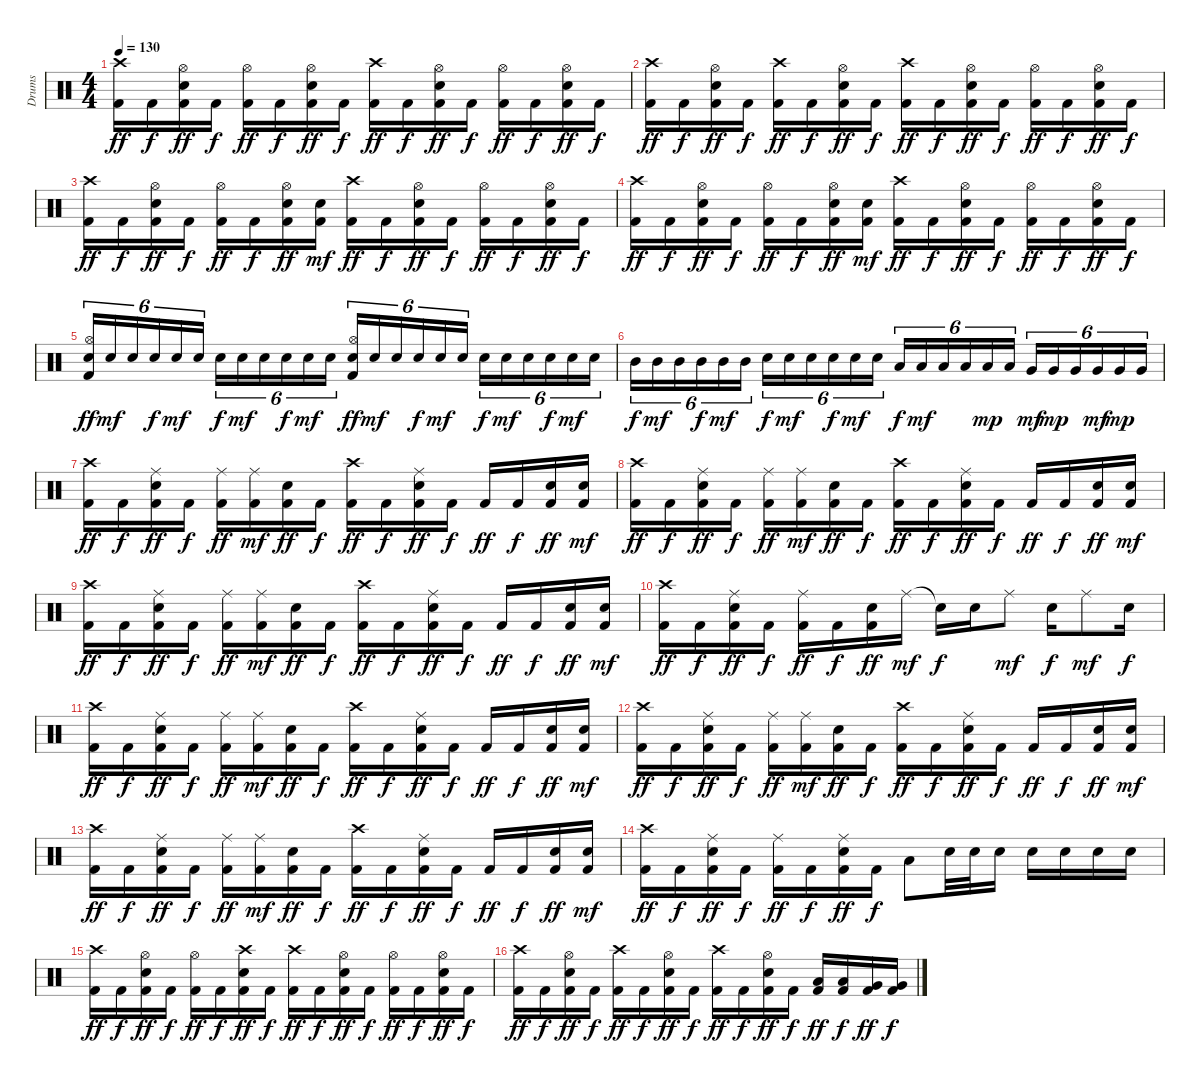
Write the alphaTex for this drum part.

\track ("Drums" "Drums") {instrument percussion}
\staff {score}
\articulation defaults
\ts (4 4)
\tempo 130
\clef neutral
\ks c
("Crash high (hit)" "Kick (hit) 2").16{dy ff} "Kick (hit) 2".16{dy f} ("Hi-Hat (open)" "Electric Snare (hit)" "Kick (hit) 2").16{dy ff} "Kick (hit) 2".16{dy f} ("Hi-Hat (open)" "Kick (hit) 2").16{dy ff} "Kick (hit) 2".16{dy f} ("Hi-Hat (open)" "Electric Snare (hit)" "Kick (hit) 2").16{dy ff} "Kick (hit) 2".16{dy f} ("Crash high (hit)" "Kick (hit) 2").16{dy ff} "Kick (hit) 2".16{dy f} ("Hi-Hat (open)" "Electric Snare (hit)" "Kick (hit) 2").16{dy ff} "Kick (hit) 2".16{dy f} ("Hi-Hat (open)" "Kick (hit) 2").16{dy ff} "Kick (hit) 2".16{dy f} ("Hi-Hat (open)" "Electric Snare (hit)" "Kick (hit) 2").16{dy ff} "Kick (hit) 2".16{dy f} |
("Crash high (hit)" "Kick (hit) 2").16{dy ff} "Kick (hit) 2".16{dy f} ("Hi-Hat (open)" "Electric Snare (hit)" "Kick (hit) 2").16{dy ff} "Kick (hit) 2".16{dy f} ("Crash high (hit)" "Kick (hit) 2").16{dy ff} "Kick (hit) 2".16{dy f} ("Hi-Hat (open)" "Electric Snare (hit)" "Kick (hit) 2").16{dy ff} "Kick (hit) 2".16{dy f} ("Crash high (hit)" "Kick (hit) 2").16{dy ff} "Kick (hit) 2".16{dy f} ("Hi-Hat (open)" "Electric Snare (hit)" "Kick (hit) 2").16{dy ff} "Kick (hit) 2".16{dy f} ("Hi-Hat (open)" "Kick (hit) 2").16{dy ff} "Kick (hit) 2".16{dy f} ("Hi-Hat (open)" "Electric Snare (hit)" "Kick (hit) 2").16{dy ff} "Kick (hit) 2".16{dy f} |
("Crash high (hit)" "Kick (hit) 2").16{dy ff} "Kick (hit) 2".16{dy f} ("Hi-Hat (open)" "Electric Snare (hit)" "Kick (hit) 2").16{dy ff} "Kick (hit) 2".16{dy f} ("Hi-Hat (open)" "Kick (hit) 2").16{dy ff} "Kick (hit) 2".16{dy f} ("Hi-Hat (open)" "Electric Snare (hit)" "Kick (hit) 2").16{dy ff} ("Electric Snare (hit)" "Kick (hit) 2").16{dy mf} ("Crash high (hit)" "Kick (hit) 2").16{dy ff} "Kick (hit) 2".16{dy f} ("Hi-Hat (open)" "Electric Snare (hit)" "Kick (hit) 2").16{dy ff} "Kick (hit) 2".16{dy f} ("Hi-Hat (open)" "Kick (hit) 2").16{dy ff} "Kick (hit) 2".16{dy f} ("Hi-Hat (open)" "Electric Snare (hit)" "Kick (hit) 2").16{dy ff} "Kick (hit) 2".16{dy f} |
("Crash high (hit)" "Kick (hit) 2").16{dy ff} "Kick (hit) 2".16{dy f} ("Hi-Hat (open)" "Electric Snare (hit)" "Kick (hit) 2").16{dy ff} "Kick (hit) 2".16{dy f} ("Hi-Hat (open)" "Kick (hit) 2").16{dy ff} "Kick (hit) 2".16{dy f} ("Hi-Hat (open)" "Electric Snare (hit)" "Kick (hit) 2").16{dy ff} ("Electric Snare (hit)" "Kick (hit) 2").16{dy mf} ("Crash high (hit)" "Kick (hit) 2").16{dy ff} "Kick (hit) 2".16{dy f} ("Hi-Hat (open)" "Electric Snare (hit)" "Kick (hit) 2").16{dy ff} "Kick (hit) 2".16{dy f} ("Hi-Hat (open)" "Kick (hit) 2").16{dy ff} "Kick (hit) 2".16{dy f} ("Hi-Hat (open)" "Electric Snare (hit)" "Kick (hit) 2").16{dy ff} "Kick (hit) 2".16{dy f} |
("Hi-Hat (open)" "Electric Snare (hit)" "Kick (hit) 2").16{tu (6 4) dy ff} "Electric Snare (hit)".16{tu (6 4) dy mf} "Electric Snare (hit)".16{tu (6 4)} "Electric Snare (hit)".16{tu (6 4) dy f} "Electric Snare (hit)".16{tu (6 4) dy mf} "Electric Snare (hit)".16{tu (6 4)} "Electric Snare (hit)".16{tu (6 4) dy f} "Electric Snare (hit)".16{tu (6 4) dy mf} "Electric Snare (hit)".16{tu (6 4)} "Electric Snare (hit)".16{tu (6 4) dy f} "Electric Snare (hit)".16{tu (6 4) dy mf} "Electric Snare (hit)".16{tu (6 4)} ("Hi-Hat (open)" "Electric Snare (hit)" "Kick (hit) 2").16{tu (6 4) dy ff} "Electric Snare (hit)".16{tu (6 4) dy mf} "Electric Snare (hit)".16{tu (6 4)} "Electric Snare (hit)".16{tu (6 4) dy f} "Electric Snare (hit)".16{tu (6 4) dy mf} "Electric Snare (hit)".16{tu (6 4)} "Electric Snare (hit)".16{tu (6 4) dy f} "Electric Snare (hit)".16{tu (6 4) dy mf} "Electric Snare (hit)".16{tu (6 4)} "Electric Snare (hit)".16{tu (6 4) dy f} "Electric Snare (hit)".16{tu (6 4) dy mf} "Electric Snare (hit)".16{tu (6 4)} |
"Mid Tom (hit)".16{tu (6 4) dy f} "Mid Tom (hit)".16{tu (6 4) dy mf} "Mid Tom (hit)".16{tu (6 4)} "Mid Tom (hit)".16{tu (6 4) dy f} "Mid Tom (hit)".16{tu (6 4) dy mf} "Mid Tom (hit)".16{tu (6 4)} "Electric Snare (hit)".16{tu (6 4) dy f} "Electric Snare (hit)".16{tu (6 4) dy mf} "Electric Snare (hit)".16{tu (6 4)} "Electric Snare (hit)".16{tu (6 4) dy f} "Electric Snare (hit)".16{tu (6 4) dy mf} "Electric Snare (hit)".16{tu (6 4)} "Low Tom (hit)".16{tu (6 4) dy f} "Low Tom (hit)".16{tu (6 4) dy mf} "Low Tom (hit)".16{tu (6 4)} "Low Tom (hit)".16{tu (6 4)} "Low Tom (hit)".16{tu (6 4) dy mp} "Low Tom (hit)".16{tu (6 4)} "Very Low Tom (hit)".16{tu (6 4) dy mf} "Very Low Tom (hit)".16{tu (6 4) dy mp} "Very Low Tom (hit)".16{tu (6 4)} "Very Low Tom (hit)".16{tu (6 4) dy mf} "Very Low Tom (hit)".16{tu (6 4) dy mp} "Very Low Tom (hit)".16{tu (6 4)} |
("Crash high (hit)" "Kick (hit) 2").16{dy ff} "Kick (hit) 2".16{dy f} ("Ride (middle)" "Electric Snare (hit)" "Kick (hit) 2").16{dy ff} "Kick (hit) 2".16{dy f} ("Ride (middle)" "Kick (hit) 2").16{dy ff} ("Ride (middle)" "Kick (hit) 2").16{dy mf} ("Electric Snare (hit)" "Kick (hit) 2").16{dy ff} "Kick (hit) 2".16{dy f} ("Crash high (hit)" "Kick (hit) 2").16{dy ff} "Kick (hit) 2".16{dy f} ("Ride (middle)" "Electric Snare (hit)" "Kick (hit) 2").16{dy ff} "Kick (hit) 2".16{dy f} "Kick (hit) 2".16{dy ff} "Kick (hit) 2".16{dy f} ("Electric Snare (hit)" "Kick (hit) 2").16{dy ff} ("Electric Snare (hit)" "Kick (hit) 2").16{dy mf} |
("Crash high (hit)" "Kick (hit) 2").16{dy ff} "Kick (hit) 2".16{dy f} ("Ride (middle)" "Electric Snare (hit)" "Kick (hit) 2").16{dy ff} "Kick (hit) 2".16{dy f} ("Ride (middle)" "Kick (hit) 2").16{dy ff} ("Ride (middle)" "Kick (hit) 2").16{dy mf} ("Electric Snare (hit)" "Kick (hit) 2").16{dy ff} "Kick (hit) 2".16{dy f} ("Crash high (hit)" "Kick (hit) 2").16{dy ff} "Kick (hit) 2".16{dy f} ("Ride (middle)" "Electric Snare (hit)" "Kick (hit) 2").16{dy ff} "Kick (hit) 2".16{dy f} "Kick (hit) 2".16{dy ff} "Kick (hit) 2".16{dy f} ("Electric Snare (hit)" "Kick (hit) 2").16{dy ff} ("Electric Snare (hit)" "Kick (hit) 2").16{dy mf} |
("Crash high (hit)" "Kick (hit) 2").16{dy ff} "Kick (hit) 2".16{dy f} ("Ride (middle)" "Electric Snare (hit)" "Kick (hit) 2").16{dy ff} "Kick (hit) 2".16{dy f} ("Ride (middle)" "Kick (hit) 2").16{dy ff} ("Ride (middle)" "Kick (hit) 2").16{dy mf} ("Electric Snare (hit)" "Kick (hit) 2").16{dy ff} "Kick (hit) 2".16{dy f} ("Crash high (hit)" "Kick (hit) 2").16{dy ff} "Kick (hit) 2".16{dy f} ("Ride (middle)" "Electric Snare (hit)" "Kick (hit) 2").16{dy ff} "Kick (hit) 2".16{dy f} "Kick (hit) 2".16{dy ff} "Kick (hit) 2".16{dy f} ("Electric Snare (hit)" "Kick (hit) 2").16{dy ff} ("Electric Snare (hit)" "Kick (hit) 2").16{dy mf} |
("Crash high (hit)" "Kick (hit) 2").16{dy ff} "Kick (hit) 2".16{dy f} ("Ride (middle)" "Electric Snare (hit)" "Kick (hit) 2").16{dy ff} "Kick (hit) 2".16{dy f} ("Ride (middle)" "Kick (hit) 2").16{dy ff} "Kick (hit) 2".16{dy f} ("Electric Snare (hit)" "Kick (hit) 2").16{dy ff} "Ride (middle)".16{dy mf} "Snare (hit)"{t}.16{dy f} "Electric Snare (hit)".16 "Ride (middle)".8{dy mf} "Electric Snare (hit)".16{dy f} "Ride (middle)".8{dy mf} "Electric Snare (hit)".16{dy f} |
("Crash high (hit)" "Kick (hit) 2").16{dy ff} "Kick (hit) 2".16{dy f} ("Ride (middle)" "Electric Snare (hit)" "Kick (hit) 2").16{dy ff} "Kick (hit) 2".16{dy f} ("Ride (middle)" "Kick (hit) 2").16{dy ff} ("Ride (middle)" "Kick (hit) 2").16{dy mf} ("Electric Snare (hit)" "Kick (hit) 2").16{dy ff} "Kick (hit) 2".16{dy f} ("Crash high (hit)" "Kick (hit) 2").16{dy ff} "Kick (hit) 2".16{dy f} ("Ride (middle)" "Electric Snare (hit)" "Kick (hit) 2").16{dy ff} "Kick (hit) 2".16{dy f} "Kick (hit) 2".16{dy ff} "Kick (hit) 2".16{dy f} ("Electric Snare (hit)" "Kick (hit) 2").16{dy ff} ("Electric Snare (hit)" "Kick (hit) 2").16{dy mf} |
("Crash high (hit)" "Kick (hit) 2").16{dy ff} "Kick (hit) 2".16{dy f} ("Ride (middle)" "Electric Snare (hit)" "Kick (hit) 2").16{dy ff} "Kick (hit) 2".16{dy f} ("Ride (middle)" "Kick (hit) 2").16{dy ff} ("Ride (middle)" "Kick (hit) 2").16{dy mf} ("Electric Snare (hit)" "Kick (hit) 2").16{dy ff} "Kick (hit) 2".16{dy f} ("Crash high (hit)" "Kick (hit) 2").16{dy ff} "Kick (hit) 2".16{dy f} ("Ride (middle)" "Electric Snare (hit)" "Kick (hit) 2").16{dy ff} "Kick (hit) 2".16{dy f} "Kick (hit) 2".16{dy ff} "Kick (hit) 2".16{dy f} ("Electric Snare (hit)" "Kick (hit) 2").16{dy ff} ("Electric Snare (hit)" "Kick (hit) 2").16{dy mf} |
("Crash high (hit)" "Kick (hit) 2").16{dy ff} "Kick (hit) 2".16{dy f} ("Ride (middle)" "Electric Snare (hit)" "Kick (hit) 2").16{dy ff} "Kick (hit) 2".16{dy f} ("Ride (middle)" "Kick (hit) 2").16{dy ff} ("Ride (middle)" "Kick (hit) 2").16{dy mf} ("Electric Snare (hit)" "Kick (hit) 2").16{dy ff} "Kick (hit) 2".16{dy f} ("Crash high (hit)" "Kick (hit) 2").16{dy ff} "Kick (hit) 2".16{dy f} ("Ride (middle)" "Electric Snare (hit)" "Kick (hit) 2").16{dy ff} "Kick (hit) 2".16{dy f} "Kick (hit) 2".16{dy ff} "Kick (hit) 2".16{dy f} ("Electric Snare (hit)" "Kick (hit) 2").16{dy ff} ("Electric Snare (hit)" "Kick (hit) 2").16{dy mf} |
("Crash high (hit)" "Kick (hit) 2").16{dy ff} "Kick (hit) 2".16{dy f} ("Ride (middle)" "Electric Snare (hit)" "Kick (hit) 2").16{dy ff} "Kick (hit) 2".16{dy f} ("Ride (middle)" "Kick (hit) 2").16{dy ff} "Kick (hit) 2".16{dy f} ("Ride (middle)" "Electric Snare (hit)" "Kick (hit) 2").16{dy ff} "Kick (hit) 2".16{dy f} "Low Tom (hit)".8 "Electric Snare (hit)".32 "Electric Snare (hit)".32 "Electric Snare (hit)".16 "Electric Snare (hit)".16 "Electric Snare (hit)".16 "Electric Snare (hit)".16 "Electric Snare (hit)".16 |
("Crash high (hit)" "Kick (hit) 2").16{dy ff} "Kick (hit) 2".16{dy f} ("Hi-Hat (open)" "Electric Snare (hit)" "Kick (hit) 2").16{dy ff} "Kick (hit) 2".16{dy f} ("Hi-Hat (open)" "Kick (hit) 2").16{dy ff} "Kick (hit) 2".16{dy f} ("Crash high (hit)" "Electric Snare (hit)" "Kick (hit) 2").16{dy ff} "Kick (hit) 2".16{dy f} ("Crash high (hit)" "Kick (hit) 2").16{dy ff} "Kick (hit) 2".16{dy f} ("Hi-Hat (open)" "Electric Snare (hit)" "Kick (hit) 2").16{dy ff} "Kick (hit) 2".16{dy f} ("Hi-Hat (open)" "Kick (hit) 2").16{dy ff} "Kick (hit) 2".16{dy f} ("Hi-Hat (open)" "Electric Snare (hit)" "Kick (hit) 2").16{dy ff} "Kick (hit) 2".16{dy f} |
("Crash high (hit)" "Kick (hit) 2").16{dy ff} "Kick (hit) 2".16{dy f} ("Hi-Hat (open)" "Electric Snare (hit)" "Kick (hit) 2").16{dy ff} "Kick (hit) 2".16{dy f} ("Crash high (hit)" "Kick (hit) 2").16{dy ff} "Kick (hit) 2".16{dy f} ("Hi-Hat (open)" "Electric Snare (hit)" "Kick (hit) 2").16{dy ff} "Kick (hit) 2".16{dy f} ("Crash high (hit)" "Kick (hit) 2").16{dy ff} "Kick (hit) 2".16{dy f} ("Hi-Hat (open)" "Electric Snare (hit)" "Kick (hit) 2").16{dy ff} "Kick (hit) 2".16{dy f} ("Low Tom (hit)" "Kick (hit) 2").16{dy ff} ("Low Tom (hit)" "Kick (hit) 2").16{dy f} ("Very Low Tom (hit)" "Kick (hit) 2").16{dy ff} ("Very Low Tom (hit)" "Kick (hit) 2").16{dy f}
